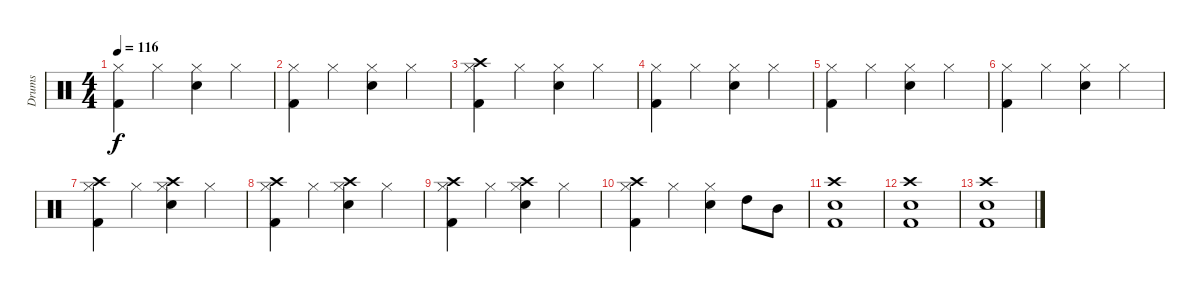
\track ("Drums" "Drums") {instrument percussion}
\staff {score}
\articulation defaults
\ts (4 4)
\tempo 116
\clef neutral
\ks c
("Hi-Hat (closed)" "Kick (hit) 2").4{dy f} "Hi-Hat (closed)".4 ("Hi-Hat (closed)" "Snare (hit) 2").4 "Hi-Hat (closed)".4 |
("Hi-Hat (closed)" "Kick (hit) 2").4 "Hi-Hat (closed)".4 ("Hi-Hat (closed)" "Snare (hit) 2").4 "Hi-Hat (closed)".4 |
("Crash high (hit)" "Hi-Hat (closed)" "Kick (hit) 2").4 "Hi-Hat (closed)".4 ("Hi-Hat (closed)" "Snare (hit) 2").4 "Hi-Hat (closed)".4 |
("Hi-Hat (closed)" "Kick (hit) 2").4 "Hi-Hat (closed)".4 ("Hi-Hat (closed)" "Snare (hit) 2").4 "Hi-Hat (closed)".4 |
("Hi-Hat (closed)" "Kick (hit) 2").4 "Hi-Hat (closed)".4 ("Hi-Hat (closed)" "Snare (hit) 2").4 "Hi-Hat (closed)".4 |
("Hi-Hat (closed)" "Kick (hit) 2").4 "Hi-Hat (closed)".4 ("Hi-Hat (closed)" "Snare (hit) 2").4 "Hi-Hat (closed)".4 |
("Crash high (hit)" "Hi-Hat (closed)" "Kick (hit) 2").4 "Hi-Hat (closed)".4 ("Crash high (hit)" "Hi-Hat (closed)" "Snare (hit) 2").4 "Hi-Hat (closed)".4 |
("Crash high (hit)" "Hi-Hat (closed)" "Kick (hit) 2").4 "Hi-Hat (closed)".4 ("Crash high (hit)" "Hi-Hat (closed)" "Snare (hit) 2").4 "Hi-Hat (closed)".4 |
("Crash high (hit)" "Hi-Hat (closed)" "Kick (hit) 2").4 "Hi-Hat (closed)".4 ("Crash high (hit)" "Hi-Hat (closed)" "Snare (hit) 2").4 "Hi-Hat (closed)".4 |
("Crash high (hit)" "Hi-Hat (closed)" "Kick (hit) 2").4 "Hi-Hat (closed)".4 ("Hi-Hat (closed)" "Snare (hit) 2").4 "High Tom (hit)".8 "Mid Tom (hit)".8 |
("Crash high (hit)" "Snare (hit) 2" "Kick (hit) 2").1 |
("Crash high (hit)" "Snare (hit) 2" "Kick (hit) 2").1 |
("Crash high (hit)" "Snare (hit) 2" "Kick (hit) 2").1
